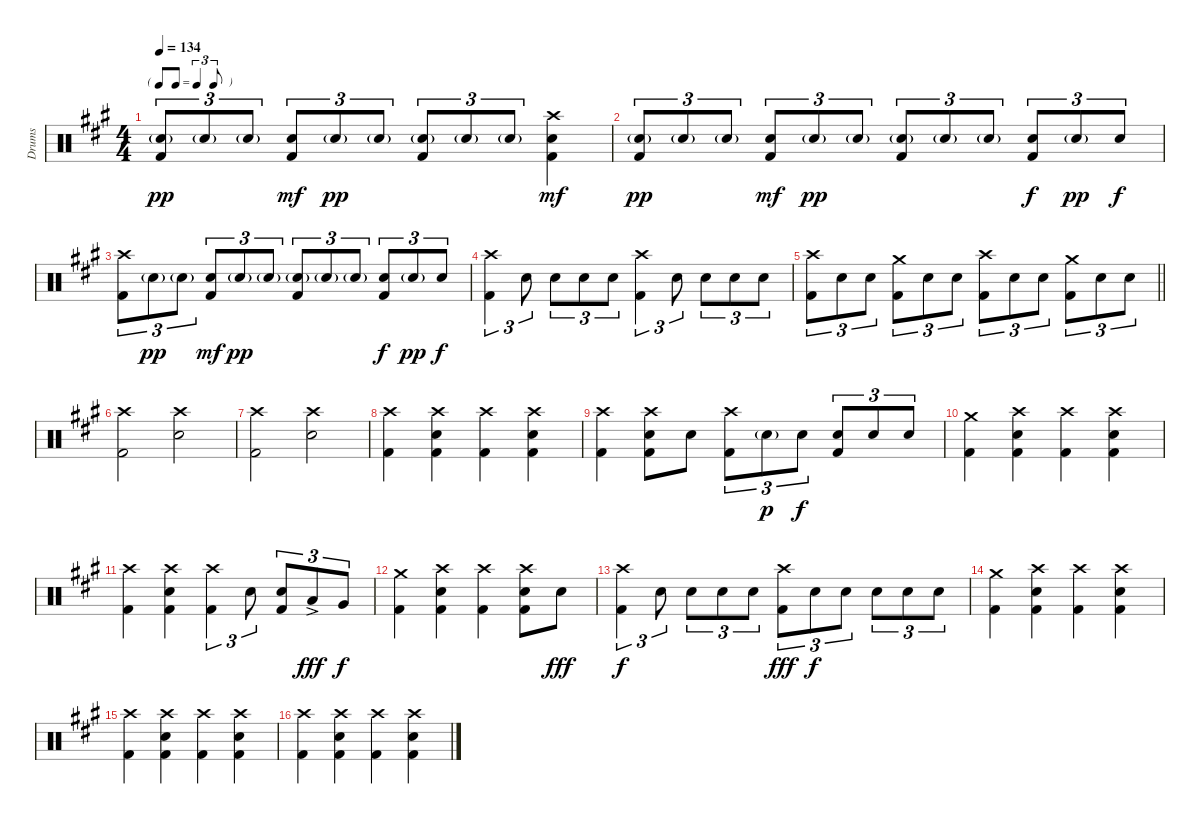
\track ("Drums" "Drums") {instrument percussion}
\staff {score}
\articulation defaults
\ts (4 4)
\tf triplet8th
\tempo 134
\clef neutral
\ks f#minor
("Snare (hit) 2"{g} "Kick (hit) 2").8{tu (3 2) dy pp} "Snare (hit) 2"{g}.8{tu (3 2)} "Snare (hit) 2"{g}.8{tu (3 2)} ("Electric Snare (hit)" "Kick (hit) 2").8{tu (3 2) dy mf} "Snare (hit) 2"{g}.8{tu (3 2) dy pp} "Snare (hit) 2"{g}.8{tu (3 2)} ("Snare (hit) 2"{g} "Kick (hit) 2").8{tu (3 2)} "Snare (hit) 2"{g}.8{tu (3 2)} "Snare (hit) 2"{g}.8{tu (3 2)} ("Crash high (hit)" "Electric Snare (hit)" "Kick (hit) 2").4{dy mf} |
("Snare (hit) 2"{g} "Kick (hit) 2").8{tu (3 2) dy pp} "Snare (hit) 2"{g}.8{tu (3 2)} "Snare (hit) 2"{g}.8{tu (3 2)} ("Electric Snare (hit)" "Kick (hit) 2").8{tu (3 2) dy mf} "Snare (hit) 2"{g}.8{tu (3 2) dy pp} "Snare (hit) 2"{g}.8{tu (3 2)} ("Snare (hit) 2"{g} "Kick (hit) 2").8{tu (3 2)} "Snare (hit) 2"{g}.8{tu (3 2)} "Snare (hit) 2"{g}.8{tu (3 2)} ("Electric Snare (hit)" "Kick (hit) 2").8{tu (3 2) dy f} "Snare (hit) 2"{g}.8{tu (3 2) dy pp} "Electric Snare (hit)".8{tu (3 2) dy f} |
("Crash high (hit)" "Kick (hit) 2").8{tu (3 2)} "Snare (hit) 2"{g}.8{tu (3 2) dy pp} "Snare (hit) 2"{g}.8{tu (3 2)} ("Electric Snare (hit)" "Kick (hit) 2").8{tu (3 2) dy mf} "Snare (hit) 2"{g}.8{tu (3 2) dy pp} "Snare (hit) 2"{g}.8{tu (3 2)} ("Snare (hit) 2"{g} "Kick (hit) 2").8{tu (3 2)} "Snare (hit) 2"{g}.8{tu (3 2)} "Snare (hit) 2"{g}.8{tu (3 2)} ("Electric Snare (hit)" "Kick (hit) 2").8{tu (3 2) dy f} "Snare (hit) 2"{g}.8{tu (3 2) dy pp} "Electric Snare (hit)".8{tu (3 2) dy f} |
("Crash high (hit)" "Kick (hit) 2").4{tu (3 2)} "Electric Snare (hit)".8{tu (3 2)} "Electric Snare (hit)".8{tu (3 2)} "Electric Snare (hit)".8{tu (3 2)} "Electric Snare (hit)".8{tu (3 2)} ("Crash high (hit)" "Kick (hit) 2").4{tu (3 2)} "Electric Snare (hit)".8{tu (3 2)} "Electric Snare (hit)".8{tu (3 2)} "Electric Snare (hit)".8{tu (3 2)} "Electric Snare (hit)".8{tu (3 2)} |
\barLineRight lightlight
("Crash high (hit)" "Kick (hit) 2").8{tu (3 2)} "Electric Snare (hit)".8{tu (3 2)} "Electric Snare (hit)".8{tu (3 2)} ("Crash medium (hit)" "Kick (hit) 2").8{tu (3 2)} "Electric Snare (hit)".8{tu (3 2)} "Electric Snare (hit)".8{tu (3 2)} ("Crash high (hit)" "Kick (hit) 2").8{tu (3 2)} "Electric Snare (hit)".8{tu (3 2)} "Electric Snare (hit)".8{tu (3 2)} ("Crash medium (hit)" "Kick (hit) 2").8{tu (3 2)} "Electric Snare (hit)".8{tu (3 2)} "Electric Snare (hit)".8{tu (3 2)} |
("Crash high (hit)" "Kick (hit) 2").2 ("Crash high (hit)" "Electric Snare (hit)").2 |
("Crash high (hit)" "Kick (hit) 2").2 ("Crash high (hit)" "Electric Snare (hit)").2 |
("Crash high (hit)" "Kick (hit) 2").4 ("Crash high (hit)" "Electric Snare (hit)" "Kick (hit) 2").4 ("Crash high (hit)" "Kick (hit) 2").4 ("Crash high (hit)" "Electric Snare (hit)" "Kick (hit) 2").4 |
("Crash high (hit)" "Kick (hit) 2").4 ("Crash high (hit)" "Electric Snare (hit)" "Kick (hit) 2").8 "Electric Snare (hit)".8 ("Crash high (hit)" "Kick (hit) 2").8{tu (3 2)} "Electric Snare (hit)"{g}.8{tu (3 2) dy p} "Electric Snare (hit)".8{tu (3 2) dy f} ("Electric Snare (hit)" "Kick (hit) 2").8{tu (3 2)} "Electric Snare (hit)".8{tu (3 2)} "Electric Snare (hit)".8{tu (3 2)} |
("Crash medium (hit)" "Kick (hit) 2").4 ("Crash high (hit)" "Electric Snare (hit)" "Kick (hit) 2").4 ("Crash high (hit)" "Kick (hit) 2").4 ("Crash high (hit)" "Electric Snare (hit)" "Kick (hit) 2").4 |
("Crash high (hit)" "Kick (hit) 2").4 ("Crash high (hit)" "Electric Snare (hit)" "Kick (hit) 2").4 ("Crash high (hit)" "Kick (hit) 2").4{tu (3 2)} "Electric Snare (hit)".8{tu (3 2)} ("Electric Snare (hit)" "Kick (hit) 2").8{tu (3 2)} "Low Tom (hit)"{ac}.8{tu (3 2) dy fff} "Very Low Tom (hit)".8{tu (3 2) dy f} |
("Crash medium (hit)" "Kick (hit) 2").4 ("Crash high (hit)" "Electric Snare (hit)" "Kick (hit) 2").4 ("Crash high (hit)" "Kick (hit) 2").4 ("Crash high (hit)" "Electric Snare (hit)" "Kick (hit) 2").8 "Electric Snare (hit)".8{dy fff} |
("Crash high (hit)" "Kick (hit) 2").4{tu (3 2) dy f} "Electric Snare (hit)".8{tu (3 2)} "Electric Snare (hit)".8{tu (3 2)} "Electric Snare (hit)".8{tu (3 2)} "Electric Snare (hit)".8{tu (3 2)} ("Crash high (hit)" "Kick (hit) 2").8{tu (3 2) dy fff} "Electric Snare (hit)".8{tu (3 2) dy f} "Electric Snare (hit)".8{tu (3 2)} "Electric Snare (hit)".8{tu (3 2)} "Electric Snare (hit)".8{tu (3 2)} "Electric Snare (hit)".8{tu (3 2)} |
("Crash medium (hit)" "Kick (hit) 2").4 ("Crash high (hit)" "Electric Snare (hit)" "Kick (hit) 2").4 ("Crash high (hit)" "Kick (hit) 2").4 ("Crash high (hit)" "Electric Snare (hit)" "Kick (hit) 2").4 |
("Crash high (hit)" "Kick (hit) 2").4 ("Crash high (hit)" "Electric Snare (hit)" "Kick (hit) 2").4 ("Crash high (hit)" "Kick (hit) 2").4 ("Crash high (hit)" "Electric Snare (hit)" "Kick (hit) 2").4 |
("Crash high (hit)" "Kick (hit) 2").4 ("Crash high (hit)" "Electric Snare (hit)" "Kick (hit) 2").4 ("Crash high (hit)" "Kick (hit) 2").4 ("Crash high (hit)" "Electric Snare (hit)" "Kick (hit) 2").4
